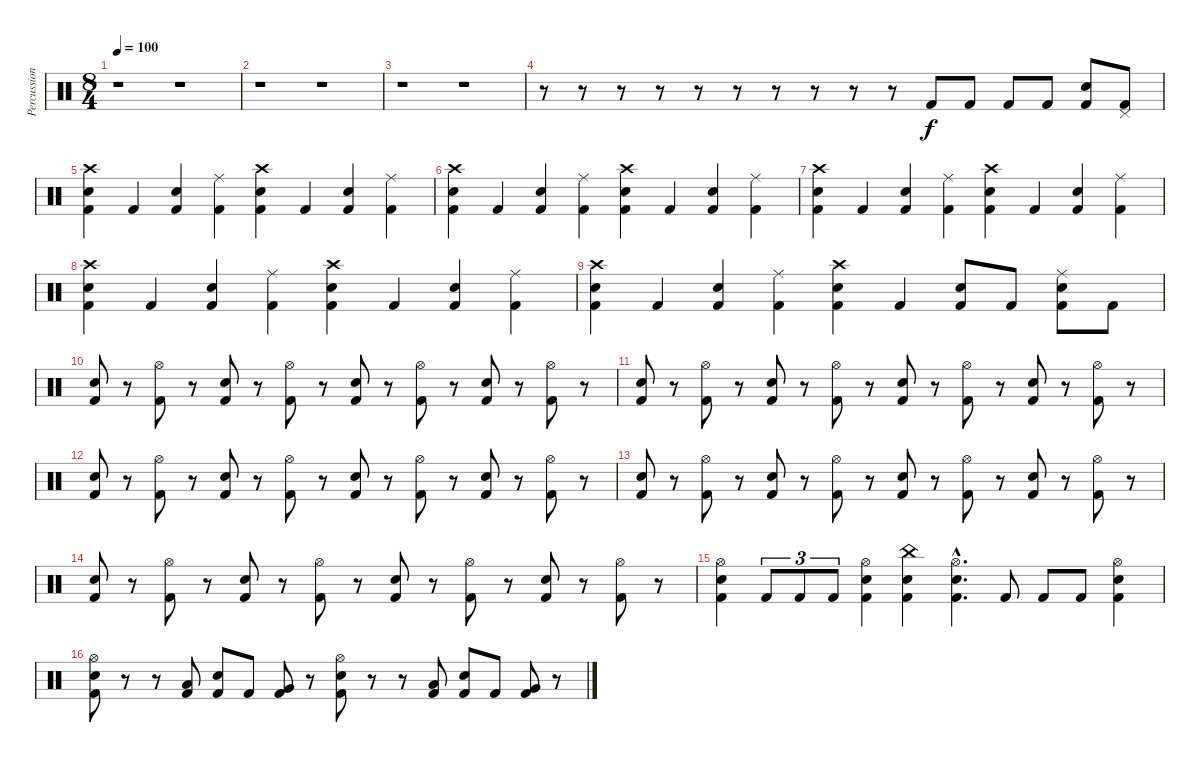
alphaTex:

\track ("Percussions" "Percussion") {instrument percussion}
\staff {score}
\articulation defaults
\ts (8 4)
\tempo 100
\clef neutral
\ks c
r.1{dy f} r.1 |
r.1 r.1 |
r.1 r.1 |
r.8 r.8 r.8 r.8 r.8 r.8 r.8 r.8 r.8 r.8 "Kick (hit) 2".8 "Kick (hit) 2".8 "Kick (hit) 2".8 "Kick (hit) 2".8 ("Electric Snare (hit)" "Kick (hit) 2").8 ("Pedal Hi-Hat (hit)" "Kick (hit) 2").8 |
("Crash high (hit)" "Electric Snare (hit)" "Kick (hit) 2").4 "Kick (hit) 2".4 ("Electric Snare (hit)" "Kick (hit) 2").4 ("Ride (middle)" "Kick (hit) 2").4 ("Crash high (hit)" "Electric Snare (hit)" "Kick (hit) 2").4 "Kick (hit) 2".4 ("Electric Snare (hit)" "Kick (hit) 2").4 ("Ride (middle)" "Kick (hit) 2").4 |
("Crash high (hit)" "Electric Snare (hit)" "Kick (hit) 2").4 "Kick (hit) 2".4 ("Electric Snare (hit)" "Kick (hit) 2").4 ("Ride (middle)" "Kick (hit) 2").4 ("Crash high (hit)" "Electric Snare (hit)" "Kick (hit) 2").4 "Kick (hit) 2".4 ("Electric Snare (hit)" "Kick (hit) 2").4 ("Ride (middle)" "Kick (hit) 2").4 |
("Crash high (hit)" "Electric Snare (hit)" "Kick (hit) 2").4 "Kick (hit) 2".4 ("Electric Snare (hit)" "Kick (hit) 2").4 ("Ride (middle)" "Kick (hit) 2").4 ("Crash high (hit)" "Electric Snare (hit)" "Kick (hit) 2").4 "Kick (hit) 2".4 ("Electric Snare (hit)" "Kick (hit) 2").4 ("Ride (middle)" "Kick (hit) 2").4 |
("Crash high (hit)" "Electric Snare (hit)" "Kick (hit) 2").4 "Kick (hit) 2".4 ("Electric Snare (hit)" "Kick (hit) 2").4 ("Ride (middle)" "Kick (hit) 2").4 ("Crash high (hit)" "Electric Snare (hit)" "Kick (hit) 2").4 "Kick (hit) 2".4 ("Electric Snare (hit)" "Kick (hit) 2").4 ("Ride (middle)" "Kick (hit) 2").4 |
("Crash high (hit)" "Electric Snare (hit)" "Kick (hit) 2").4 "Kick (hit) 2".4 ("Electric Snare (hit)" "Kick (hit) 2").4 ("Ride (middle)" "Kick (hit) 2").4 ("Crash high (hit)" "Electric Snare (hit)" "Kick (hit) 2").4 "Kick (hit) 2".4 ("Electric Snare (hit)" "Kick (hit) 2").8 "Kick (hit) 2".8 ("Ride (middle)" "Electric Snare (hit)" "Kick (hit) 2").8 "Kick (hit) 2".8 |
("Electric Snare (hit)" "Kick (hit) 2").8 r.8 ("Hi-Hat (open)" "Kick (hit) 2").8 r.8 ("Electric Snare (hit)" "Kick (hit) 2").8 r.8 ("Hi-Hat (open)" "Kick (hit) 2").8 r.8 ("Electric Snare (hit)" "Kick (hit) 2").8 r.8 ("Hi-Hat (open)" "Kick (hit) 2").8 r.8 ("Electric Snare (hit)" "Kick (hit) 2").8 r.8 ("Hi-Hat (open)" "Kick (hit) 2").8 r.8 |
("Electric Snare (hit)" "Kick (hit) 2").8 r.8 ("Hi-Hat (open)" "Kick (hit) 2").8 r.8 ("Electric Snare (hit)" "Kick (hit) 2").8 r.8 ("Hi-Hat (open)" "Kick (hit) 2").8 r.8 ("Electric Snare (hit)" "Kick (hit) 2").8 r.8 ("Hi-Hat (open)" "Kick (hit) 2").8 r.8 ("Electric Snare (hit)" "Kick (hit) 2").8 r.8 ("Hi-Hat (open)" "Kick (hit) 2").8 r.8 |
("Electric Snare (hit)" "Kick (hit) 2").8 r.8 ("Hi-Hat (open)" "Kick (hit) 2").8 r.8 ("Electric Snare (hit)" "Kick (hit) 2").8 r.8 ("Hi-Hat (open)" "Kick (hit) 2").8 r.8 ("Electric Snare (hit)" "Kick (hit) 2").8 r.8 ("Hi-Hat (open)" "Kick (hit) 2").8 r.8 ("Electric Snare (hit)" "Kick (hit) 2").8 r.8 ("Hi-Hat (open)" "Kick (hit) 2").8 r.8 |
("Electric Snare (hit)" "Kick (hit) 2").8 r.8 ("Hi-Hat (open)" "Kick (hit) 2").8 r.8 ("Electric Snare (hit)" "Kick (hit) 2").8 r.8 ("Hi-Hat (open)" "Kick (hit) 2").8 r.8 ("Electric Snare (hit)" "Kick (hit) 2").8 r.8 ("Hi-Hat (open)" "Kick (hit) 2").8 r.8 ("Electric Snare (hit)" "Kick (hit) 2").8 r.8 ("Hi-Hat (open)" "Kick (hit) 2").8 r.8 |
("Electric Snare (hit)" "Kick (hit) 2").8 r.8 ("Hi-Hat (open)" "Kick (hit) 2").8 r.8 ("Electric Snare (hit)" "Kick (hit) 2").8 r.8 ("Hi-Hat (open)" "Kick (hit) 2").8 r.8 ("Electric Snare (hit)" "Kick (hit) 2").8 r.8 ("Hi-Hat (open)" "Kick (hit) 2").8 r.8 ("Electric Snare (hit)" "Kick (hit) 2").8 r.8 ("Hi-Hat (open)" "Kick (hit) 2").8 r.8 |
("Hi-Hat (open)" "Electric Snare (hit)" "Kick (hit) 2").4 "Kick (hit) 2".8{tu (3 2)} "Kick (hit) 2".8{tu (3 2)} "Kick (hit) 2".8{tu (3 2)} ("Hi-Hat (open)" "Electric Snare (hit)" "Kick (hit) 2").4 ("China (hit)" "Electric Snare (hit)" "Kick (hit) 2").4 ("Hi-Hat (open)"{hac} "Electric Snare (hit)"{hac} "Kick (hit) 2"{hac}).4{d} "Kick (hit) 2".8 "Kick (hit) 2".8 "Kick (hit) 2".8 ("Hi-Hat (open)" "Electric Snare (hit)" "Kick (hit) 2").4 |
("Hi-Hat (open)" "Electric Snare (hit)" "Kick (hit) 2").8 r.8 r.8 ("Low Floor Tom (hit)" "Kick (hit) 2").8 ("Electric Snare (hit)" "Kick (hit) 2").8 "Kick (hit) 2".8 ("Very Low Tom (hit)" "Kick (hit) 2").8 r.8 ("Hi-Hat (open)" "Electric Snare (hit)" "Kick (hit) 2").8 r.8 r.8 ("Low Floor Tom (hit)" "Kick (hit) 2").8 ("Electric Snare (hit)" "Kick (hit) 2").8 "Kick (hit) 2".8 ("Very Low Tom (hit)" "Kick (hit) 2").8 r.8
